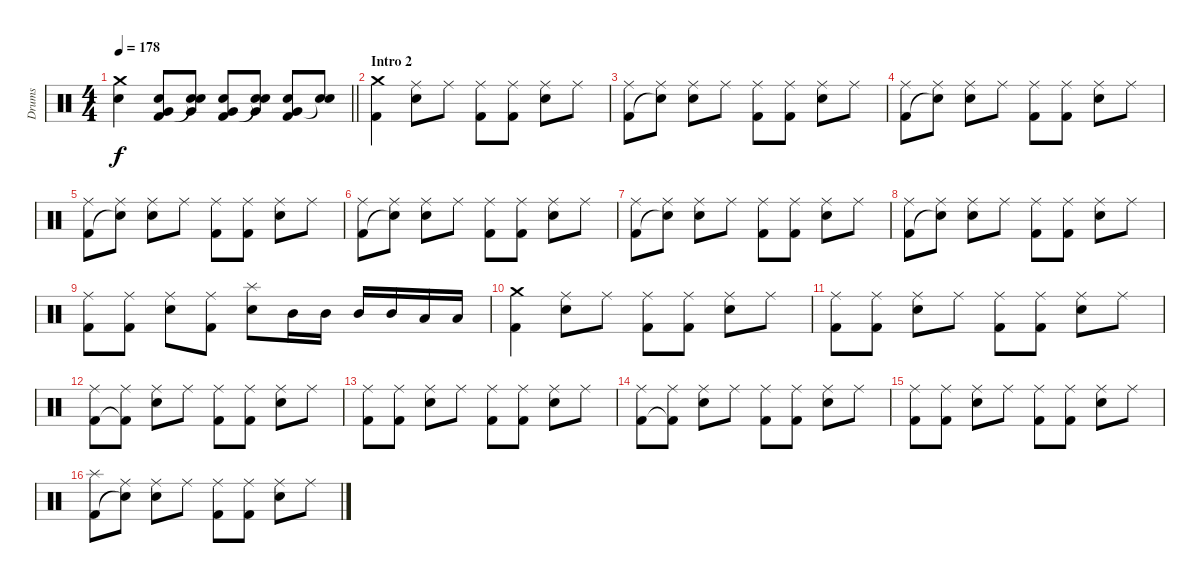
\track ("Drums" "Drums") {instrument percussion}
\staff {score}
\articulation defaults
\ts (4 4)
\tempo 178
\clef neutral
\barLineRight lightlight
\ks c
("Crash medium (hit)" "Electric Snare (hit)").4{dy f} ("Electric Snare (hit)" "Very Low Tom (hit)" "Kick (hit) 2").8 ("Electric Snare (hit)" "Very Low Tom (hit)" "Snare (hit)"{t}).8 ("Electric Snare (hit)" "Very Low Tom (hit)" "Kick (hit) 2").8 ("Electric Snare (hit)" "Very Low Tom (hit)" "Snare (hit)"{t}).8 ("Electric Snare (hit)" "Very Low Tom (hit)" "Kick (hit) 2").8 ("Electric Snare (hit)" "Snare (hit)"{t}).8 |
\section ("" "Intro 2")
("Crash medium (hit)" "Kick (hit) 2").4 ("Ride (middle)" "Electric Snare (hit)").8 "Ride (middle)".8 ("Ride (middle)" "Kick (hit) 2").8 ("Ride (middle)" "Kick (hit) 2").8 ("Ride (middle)" "Electric Snare (hit)").8 "Ride (middle)".8 |
("Ride (middle)" "Kick (hit) 2").8 ("Ride (middle)" "Snare (hit)"{t}).8 ("Ride (middle)" "Electric Snare (hit)").8 "Ride (middle)".8 ("Ride (middle)" "Kick (hit) 2").8 ("Ride (middle)" "Kick (hit) 2").8 ("Ride (middle)" "Electric Snare (hit)").8 "Ride (middle)".8 |
("Ride (middle)" "Kick (hit) 2").8 ("Ride (middle)" "Snare (hit)"{t}).8 ("Ride (middle)" "Electric Snare (hit)").8 "Ride (middle)".8 ("Ride (middle)" "Kick (hit) 2").8 ("Ride (middle)" "Kick (hit) 2").8 ("Ride (middle)" "Electric Snare (hit)").8 "Ride (middle)".8 |
("Ride (middle)" "Kick (hit) 2").8 ("Ride (middle)" "Snare (hit)"{t}).8 ("Ride (middle)" "Electric Snare (hit)").8 "Ride (middle)".8 ("Ride (middle)" "Kick (hit) 2").8 ("Ride (middle)" "Kick (hit) 2").8 ("Ride (middle)" "Electric Snare (hit)").8 "Ride (middle)".8 |
("Ride (middle)" "Kick (hit) 2").8 ("Ride (middle)" "Snare (hit)"{t}).8 ("Ride (middle)" "Electric Snare (hit)").8 "Ride (middle)".8 ("Ride (middle)" "Kick (hit) 2").8 ("Ride (middle)" "Kick (hit) 2").8 ("Ride (middle)" "Electric Snare (hit)").8 "Ride (middle)".8 |
("Ride (middle)" "Kick (hit) 2").8 ("Ride (middle)" "Snare (hit)"{t}).8 ("Ride (middle)" "Electric Snare (hit)").8 "Ride (middle)".8 ("Ride (middle)" "Kick (hit) 2").8 ("Ride (middle)" "Kick (hit) 2").8 ("Ride (middle)" "Electric Snare (hit)").8 "Ride (middle)".8 |
("Ride (middle)" "Kick (hit) 2").8 ("Ride (middle)" "Snare (hit)"{t}).8 ("Ride (middle)" "Electric Snare (hit)").8 "Ride (middle)".8 ("Ride (middle)" "Kick (hit) 2").8 ("Ride (middle)" "Kick (hit) 2").8 ("Ride (middle)" "Electric Snare (hit)").8 "Ride (middle)".8 |
("Ride (middle)" "Kick (hit) 2").8 ("Ride (middle)" "Kick (hit) 2").8 ("Ride (middle)" "Electric Snare (hit)").8 ("Ride (middle)" "Kick (hit) 2").8 ("Splash (hit)" "Electric Snare (hit)").8 "Mid Tom (hit)".16 "Mid Tom (hit)".16 "Mid Tom (hit)".16 "Mid Tom (hit)".16 "Low Tom (hit)".16 "Low Tom (hit)".16 |
("Crash medium (hit)" "Kick (hit) 2").4 ("Ride (middle)" "Electric Snare (hit)").8 "Ride (middle)".8 ("Ride (middle)" "Kick (hit) 2").8 ("Ride (middle)" "Kick (hit) 2").8 ("Ride (middle)" "Electric Snare (hit)").8 "Ride (middle)".8 |
("Ride (middle)" "Kick (hit) 2").8 ("Ride (middle)" "Kick (hit) 2").8 ("Ride (middle)" "Electric Snare (hit)").8 "Ride (middle)".8 ("Ride (middle)" "Kick (hit) 2").8 ("Ride (middle)" "Kick (hit) 2").8 ("Ride (middle)" "Electric Snare (hit)").8 "Ride (middle)".8 |
("Ride (middle)" "Kick (hit) 2").8 ("Ride (middle)" "Kick (hit) 2"{t}).8 ("Ride (middle)" "Electric Snare (hit)").8 "Ride (middle)".8 ("Ride (middle)" "Kick (hit) 2").8 ("Ride (middle)" "Kick (hit) 2").8 ("Ride (middle)" "Electric Snare (hit)").8 "Ride (middle)".8 |
("Ride (middle)" "Kick (hit) 2").8 ("Ride (middle)" "Kick (hit) 2").8 ("Ride (middle)" "Electric Snare (hit)").8 "Ride (middle)".8 ("Ride (middle)" "Kick (hit) 2").8 ("Ride (middle)" "Kick (hit) 2").8 ("Ride (middle)" "Electric Snare (hit)").8 "Ride (middle)".8 |
("Ride (middle)" "Kick (hit) 2").8 ("Ride (middle)" "Kick (hit) 2"{t}).8 ("Ride (middle)" "Electric Snare (hit)").8 "Ride (middle)".8 ("Ride (middle)" "Kick (hit) 2").8 ("Ride (middle)" "Kick (hit) 2").8 ("Ride (middle)" "Electric Snare (hit)").8 "Ride (middle)".8 |
("Ride (middle)" "Kick (hit) 2").8 ("Ride (middle)" "Kick (hit) 2").8 ("Ride (middle)" "Electric Snare (hit)").8 "Ride (middle)".8 ("Ride (middle)" "Kick (hit) 2").8 ("Ride (middle)" "Kick (hit) 2").8 ("Ride (middle)" "Electric Snare (hit)").8 "Ride (middle)".8 |
("Splash (hit)" "Kick (hit) 2").8 ("Ride (middle)" "Snare (hit)"{t}).8 ("Ride (middle)" "Electric Snare (hit)").8 "Ride (middle)".8 ("Ride (middle)" "Kick (hit) 2").8 ("Ride (middle)" "Kick (hit) 2").8 ("Ride (middle)" "Electric Snare (hit)").8 "Ride (middle)".8
